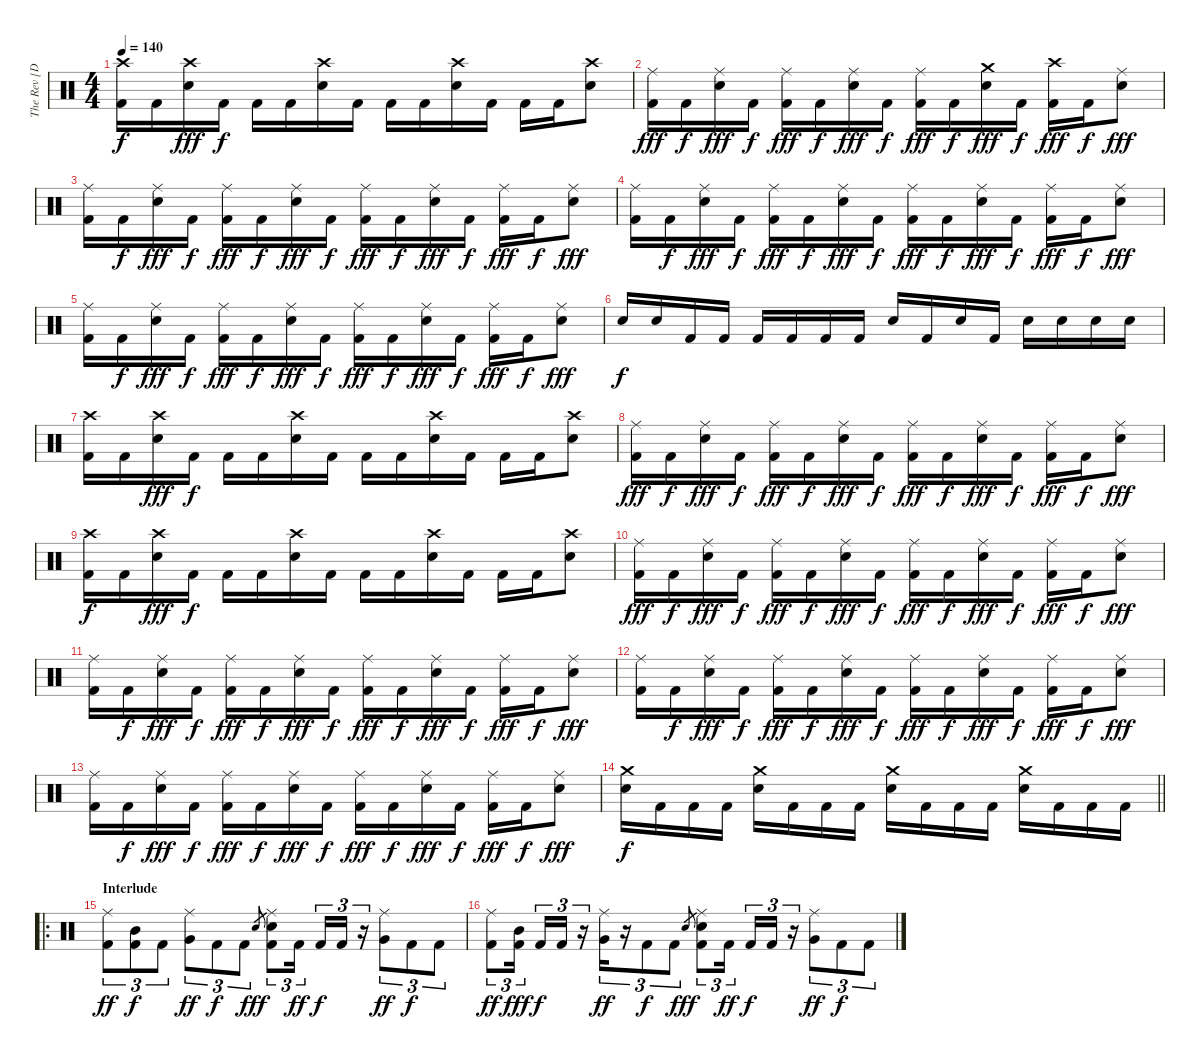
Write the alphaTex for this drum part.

\track ("The Rev [Drum]" "The Rev [D") {instrument percussion}
\staff {score}
\articulation defaults
\ts (4 4)
\tempo 140
\clef neutral
\ks c
("Crash high (hit)" "Kick (hit) 2").16{dy f} "Kick (hit) 2".16 ("Crash high (hit)" "Snare (hit) 2").16{dy fff} "Kick (hit) 2".16{dy f} "Kick (hit) 2".16 "Kick (hit) 2".16 ("Crash high (hit)" "Snare (hit) 2").16 "Kick (hit) 2".16 "Kick (hit) 2".16 "Kick (hit) 2".16 ("Crash high (hit)" "Snare (hit) 2").16 "Kick (hit) 2".16 "Kick (hit) 2".16 "Kick (hit) 2".16 ("Crash high (hit)" "Snare (hit) 2").8 |
("Ride (middle)" "Kick (hit) 2").16{dy fff} "Kick (hit) 2".16{dy f} ("Ride (middle)" "Snare (hit) 2").16{dy fff} "Kick (hit) 2".16{dy f} ("Ride (middle)" "Kick (hit) 2").16{dy fff} "Kick (hit) 2".16{dy f} ("Ride (middle)" "Snare (hit) 2").16{dy fff} "Kick (hit) 2".16{dy f} ("Ride (middle)" "Kick (hit) 2").16{dy fff} "Kick (hit) 2".16{dy f} ("Crash medium (hit)" "Snare (hit) 2").16{dy fff} "Kick (hit) 2".16{dy f} ("Crash high (hit)" "Kick (hit) 2").16{dy fff} "Kick (hit) 2".16{dy f} ("Ride (middle)" "Snare (hit) 2").8{dy fff} |
("Ride (middle)" "Kick (hit) 2").16 "Kick (hit) 2".16{dy f} ("Ride (middle)" "Snare (hit) 2").16{dy fff} "Kick (hit) 2".16{dy f} ("Ride (middle)" "Kick (hit) 2").16{dy fff} "Kick (hit) 2".16{dy f} ("Ride (middle)" "Snare (hit) 2").16{dy fff} "Kick (hit) 2".16{dy f} ("Ride (middle)" "Kick (hit) 2").16{dy fff} "Kick (hit) 2".16{dy f} ("Ride (middle)" "Snare (hit) 2").16{dy fff} "Kick (hit) 2".16{dy f} ("Ride (middle)" "Kick (hit) 2").16{dy fff} "Kick (hit) 2".16{dy f} ("Ride (middle)" "Snare (hit) 2").8{dy fff} |
("Ride (middle)" "Kick (hit) 2").16 "Kick (hit) 2".16{dy f} ("Ride (middle)" "Snare (hit) 2").16{dy fff} "Kick (hit) 2".16{dy f} ("Ride (middle)" "Kick (hit) 2").16{dy fff} "Kick (hit) 2".16{dy f} ("Ride (middle)" "Snare (hit) 2").16{dy fff} "Kick (hit) 2".16{dy f} ("Ride (middle)" "Kick (hit) 2").16{dy fff} "Kick (hit) 2".16{dy f} ("Ride (middle)" "Snare (hit) 2").16{dy fff} "Kick (hit) 2".16{dy f} ("Ride (middle)" "Kick (hit) 2").16{dy fff} "Kick (hit) 2".16{dy f} ("Ride (middle)" "Snare (hit) 2").8{dy fff} |
("Ride (middle)" "Kick (hit) 2").16 "Kick (hit) 2".16{dy f} ("Ride (middle)" "Snare (hit) 2").16{dy fff} "Kick (hit) 2".16{dy f} ("Ride (middle)" "Kick (hit) 2").16{dy fff} "Kick (hit) 2".16{dy f} ("Ride (middle)" "Snare (hit) 2").16{dy fff} "Kick (hit) 2".16{dy f} ("Ride (middle)" "Kick (hit) 2").16{dy fff} "Kick (hit) 2".16{dy f} ("Ride (middle)" "Snare (hit) 2").16{dy fff} "Kick (hit) 2".16{dy f} ("Ride (middle)" "Kick (hit) 2").16{dy fff} "Kick (hit) 2".16{dy f} ("Ride (middle)" "Snare (hit) 2").8{dy fff} |
"Snare (hit) 2".16{dy f} "Snare (hit) 2".16 "Kick (hit) 2".16 "Kick (hit) 2".16 "Kick (hit) 2".16 "Kick (hit) 2".16 "Kick (hit) 2".16 "Kick (hit) 2".16 "Snare (hit) 2".16 "Kick (hit) 2".16 "Snare (hit) 2".16 "Kick (hit) 2".16 "Snare (hit) 2".16 "Snare (hit) 2".16 "Snare (hit) 2".16 "Snare (hit) 2".16 |
("Crash high (hit)" "Kick (hit) 2").16 "Kick (hit) 2".16 ("Crash high (hit)" "Snare (hit) 2").16{dy fff} "Kick (hit) 2".16{dy f} "Kick (hit) 2".16 "Kick (hit) 2".16 ("Crash high (hit)" "Snare (hit) 2").16 "Kick (hit) 2".16 "Kick (hit) 2".16 "Kick (hit) 2".16 ("Crash high (hit)" "Snare (hit) 2").16 "Kick (hit) 2".16 "Kick (hit) 2".16 "Kick (hit) 2".16 ("Crash high (hit)" "Snare (hit) 2").8 |
("Ride (middle)" "Kick (hit) 2").16{dy fff} "Kick (hit) 2".16{dy f} ("Ride (middle)" "Snare (hit) 2").16{dy fff} "Kick (hit) 2".16{dy f} ("Ride (middle)" "Kick (hit) 2").16{dy fff} "Kick (hit) 2".16{dy f} ("Ride (middle)" "Snare (hit) 2").16{dy fff} "Kick (hit) 2".16{dy f} ("Ride (middle)" "Kick (hit) 2").16{dy fff} "Kick (hit) 2".16{dy f} ("Ride (middle)" "Snare (hit) 2").16{dy fff} "Kick (hit) 2".16{dy f} ("Ride (middle)" "Kick (hit) 2").16{dy fff} "Kick (hit) 2".16{dy f} ("Ride (middle)" "Snare (hit) 2").8{dy fff} |
("Crash high (hit)" "Kick (hit) 2").16{dy f} "Kick (hit) 2".16 ("Crash high (hit)" "Snare (hit) 2").16{dy fff} "Kick (hit) 2".16{dy f} "Kick (hit) 2".16 "Kick (hit) 2".16 ("Crash high (hit)" "Snare (hit) 2").16 "Kick (hit) 2".16 "Kick (hit) 2".16 "Kick (hit) 2".16 ("Crash high (hit)" "Snare (hit) 2").16 "Kick (hit) 2".16 "Kick (hit) 2".16 "Kick (hit) 2".16 ("Crash high (hit)" "Snare (hit) 2").8 |
("Ride (middle)" "Kick (hit) 2").16{dy fff} "Kick (hit) 2".16{dy f} ("Ride (middle)" "Snare (hit) 2").16{dy fff} "Kick (hit) 2".16{dy f} ("Ride (middle)" "Kick (hit) 2").16{dy fff} "Kick (hit) 2".16{dy f} ("Ride (middle)" "Snare (hit) 2").16{dy fff} "Kick (hit) 2".16{dy f} ("Ride (middle)" "Kick (hit) 2").16{dy fff} "Kick (hit) 2".16{dy f} ("Ride (middle)" "Snare (hit) 2").16{dy fff} "Kick (hit) 2".16{dy f} ("Ride (middle)" "Kick (hit) 2").16{dy fff} "Kick (hit) 2".16{dy f} ("Ride (middle)" "Snare (hit) 2").8{dy fff} |
("Ride (middle)" "Kick (hit) 2").16 "Kick (hit) 2".16{dy f} ("Ride (middle)" "Snare (hit) 2").16{dy fff} "Kick (hit) 2".16{dy f} ("Ride (middle)" "Kick (hit) 2").16{dy fff} "Kick (hit) 2".16{dy f} ("Ride (middle)" "Snare (hit) 2").16{dy fff} "Kick (hit) 2".16{dy f} ("Ride (middle)" "Kick (hit) 2").16{dy fff} "Kick (hit) 2".16{dy f} ("Ride (middle)" "Snare (hit) 2").16{dy fff} "Kick (hit) 2".16{dy f} ("Ride (middle)" "Kick (hit) 2").16{dy fff} "Kick (hit) 2".16{dy f} ("Ride (middle)" "Snare (hit) 2").8{dy fff} |
("Ride (middle)" "Kick (hit) 2").16 "Kick (hit) 2".16{dy f} ("Ride (middle)" "Snare (hit) 2").16{dy fff} "Kick (hit) 2".16{dy f} ("Ride (middle)" "Kick (hit) 2").16{dy fff} "Kick (hit) 2".16{dy f} ("Ride (middle)" "Snare (hit) 2").16{dy fff} "Kick (hit) 2".16{dy f} ("Ride (middle)" "Kick (hit) 2").16{dy fff} "Kick (hit) 2".16{dy f} ("Ride (middle)" "Snare (hit) 2").16{dy fff} "Kick (hit) 2".16{dy f} ("Ride (middle)" "Kick (hit) 2").16{dy fff} "Kick (hit) 2".16{dy f} ("Ride (middle)" "Snare (hit) 2").8{dy fff} |
("Ride (middle)" "Kick (hit) 2").16 "Kick (hit) 2".16{dy f} ("Ride (middle)" "Snare (hit) 2").16{dy fff} "Kick (hit) 2".16{dy f} ("Ride (middle)" "Kick (hit) 2").16{dy fff} "Kick (hit) 2".16{dy f} ("Ride (middle)" "Snare (hit) 2").16{dy fff} "Kick (hit) 2".16{dy f} ("Ride (middle)" "Kick (hit) 2").16{dy fff} "Kick (hit) 2".16{dy f} ("Ride (middle)" "Snare (hit) 2").16{dy fff} "Kick (hit) 2".16{dy f} ("Ride (middle)" "Kick (hit) 2").16{dy fff} "Kick (hit) 2".16{dy f} ("Ride (middle)" "Snare (hit) 2").8{dy fff} |
\barLineRight lightlight
("Crash medium (hit)" "Snare (hit) 2").16{dy f} "Kick (hit) 2".16 "Kick (hit) 2".16 "Kick (hit) 2".16 ("Crash medium (hit)" "Snare (hit) 2").16 "Kick (hit) 2".16 "Kick (hit) 2".16 "Kick (hit) 2".16 ("Crash medium (hit)" "Snare (hit) 2").16 "Kick (hit) 2".16 "Kick (hit) 2".16 "Kick (hit) 2".16 ("Crash medium (hit)" "Snare (hit) 2").16 "Kick (hit) 2".16 "Kick (hit) 2".16 "Kick (hit) 2".16 |
\ro
\section ("" "Interlude")
("Ride (middle)" "Kick (hit) 2").8{tu (3 2) dy ff} ("Mid Tom (hit)" "Kick (hit) 2").8{tu (3 2) dy f} "Kick (hit) 2".8{tu (3 2)} ("Ride (middle)" "Very Low Tom (hit)").8{tu (3 2) dy ff} "Kick (hit) 2".8{tu (3 2) dy f} "Kick (hit) 2".8{tu (3 2)} "Snare (hit) 2".8{gr dy fff} ("Ride (middle)" "Snare (hit) 2" "Kick (hit) 2").8{tu (3 2)} "Kick (hit) 2".16{tu (3 2) dy ff beam splitsecondary} "Kick (hit) 2".16{tu (3 2) dy f} "Kick (hit) 2".16{tu (3 2)} r.16{tu (3 2)} ("Ride (middle)" "Very Low Tom (hit)").8{tu (3 2) dy ff} "Kick (hit) 2".8{tu (3 2) dy f} "Kick (hit) 2".8{tu (3 2)} |
("Ride (middle)" "Kick (hit) 2").8{tu (3 2) dy ff} ("Mid Tom (hit)" "Kick (hit) 2").16{tu (3 2) dy fff beam splitsecondary} "Kick (hit) 2".16{tu (3 2) dy f} "Kick (hit) 2".16{tu (3 2)} r.16{tu (3 2)} ("Ride (middle)" "Very Low Tom (hit)").16{tu (3 2) dy ff} r.16{tu (3 2)} "Kick (hit) 2".8{tu (3 2) dy f} "Kick (hit) 2".8{tu (3 2)} "Snare (hit) 2".8{gr dy fff} ("Ride (middle)" "Snare (hit) 2" "Kick (hit) 2").8{tu (3 2)} "Kick (hit) 2".16{tu (3 2) dy ff beam splitsecondary} "Kick (hit) 2".16{tu (3 2) dy f} "Kick (hit) 2".16{tu (3 2)} r.16{tu (3 2)} ("Ride (middle)" "Very Low Tom (hit)").8{tu (3 2) dy ff} "Kick (hit) 2".8{tu (3 2) dy f} "Kick (hit) 2".8{tu (3 2)}
